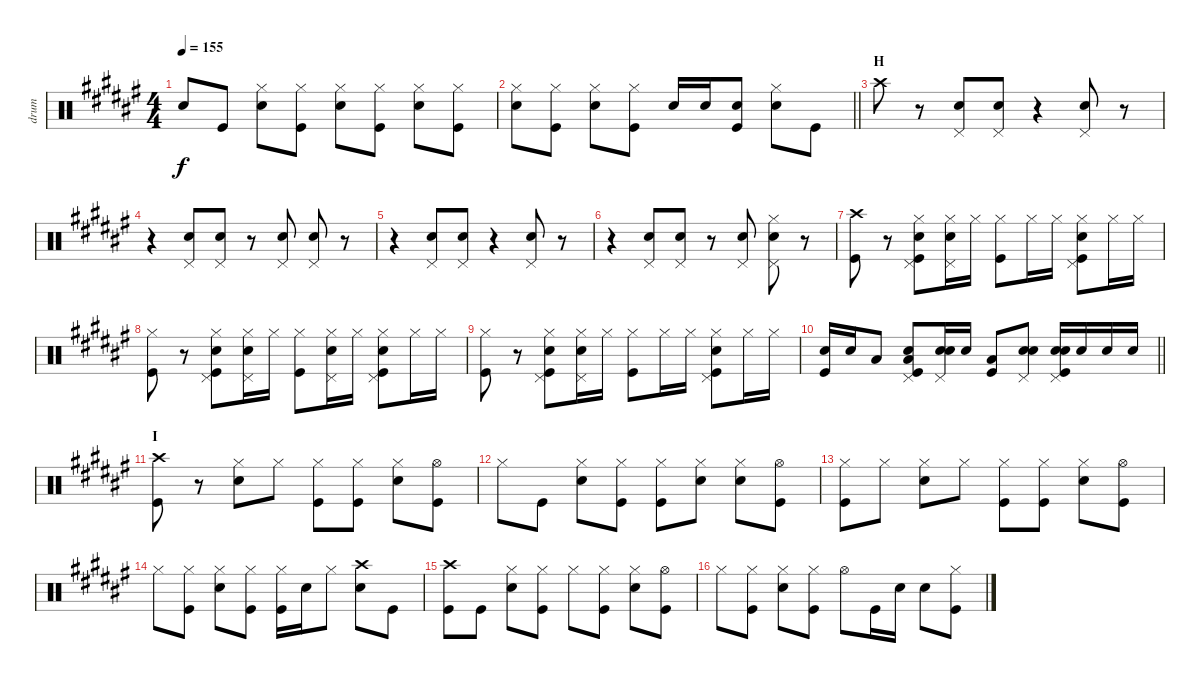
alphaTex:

\track ("drum" "drum") {instrument percussion}
\staff {score}
\articulation defaults
\ts (4 4)
\tempo 155
\clef neutral
\ks f# "Snare (hit) 2".8{dy f} "Kick (hit)".8
("Hi-Hat (closed)" "Snare (hit) 2").8 ("Hi-Hat (closed)" "Kick (hit)").8 ("Hi-Hat (closed)" "Snare (hit) 2").8 ("Hi-Hat (closed)" "Kick (hit)").8 ("Hi-Hat (closed)" "Snare (hit) 2").8 ("Hi-Hat (closed)" "Kick (hit)").8 |
\barLineRight lightlight
("Hi-Hat (closed)" "Snare (hit) 2").8 ("Hi-Hat (closed)" "Kick (hit)").8 ("Hi-Hat (closed)" "Snare (hit) 2").8 ("Hi-Hat (closed)" "Kick (hit)").8 "Snare (hit) 2".16 "Snare (hit) 2".16 ("Snare (hit) 2" "Kick (hit)").8 ("Hi-Hat (closed)" "Snare (hit) 2").8 "Kick (hit)".8 |
\section ("" "H")
"Crash high (hit)".8 r.8 ("Hand Clap (hit)" "Pedal Hi-Hat (hit)").8 ("Hand Clap (hit)" "Pedal Hi-Hat (hit)").8 r.4 ("Hand Clap (hit)" "Pedal Hi-Hat (hit)").8 r.8 |
r.4 ("Hand Clap (hit)" "Pedal Hi-Hat (hit)").8 ("Hand Clap (hit)" "Pedal Hi-Hat (hit)").8 r.8 ("Hand Clap (hit)" "Pedal Hi-Hat (hit)").8 ("Hand Clap (hit)" "Pedal Hi-Hat (hit)").8 r.8 |
r.4 ("Hand Clap (hit)" "Pedal Hi-Hat (hit)").8 ("Hand Clap (hit)" "Pedal Hi-Hat (hit)").8 r.4 ("Hand Clap (hit)" "Pedal Hi-Hat (hit)").8 r.8 |
r.4 ("Hand Clap (hit)" "Pedal Hi-Hat (hit)").8 ("Hand Clap (hit)" "Pedal Hi-Hat (hit)").8 r.8 ("Hand Clap (hit)" "Pedal Hi-Hat (hit)").8 ("Hi-Hat (closed)" "Hand Clap (hit)" "Pedal Hi-Hat (hit)").8 r.8 |
("Crash high (hit)" "Kick (hit)").8 r.8 ("Hi-Hat (closed)" "Hand Clap (hit)" "Pedal Hi-Hat (hit)" "Kick (hit)").8 ("Hi-Hat (closed)" "Hand Clap (hit)" "Pedal Hi-Hat (hit)").16 "Hi-Hat (closed)".16 ("Hi-Hat (closed)" "Kick (hit)").8 "Hi-Hat (closed)".16 "Hi-Hat (closed)".16 ("Hi-Hat (closed)" "Hand Clap (hit)" "Pedal Hi-Hat (hit)" "Kick (hit)").8 "Hi-Hat (closed)".16 "Hi-Hat (closed)".16 |
("Hi-Hat (closed)" "Kick (hit)").8 r.8 ("Hi-Hat (closed)" "Hand Clap (hit)" "Pedal Hi-Hat (hit)" "Kick (hit)").8 ("Hi-Hat (closed)" "Hand Clap (hit)" "Pedal Hi-Hat (hit)").16 "Hi-Hat (closed)".16 ("Hi-Hat (closed)" "Kick (hit)").8 ("Hi-Hat (closed)" "Hand Clap (hit)" "Pedal Hi-Hat (hit)").16 "Hi-Hat (closed)".16 ("Hi-Hat (closed)" "Hand Clap (hit)" "Pedal Hi-Hat (hit)" "Kick (hit)").8 "Hi-Hat (closed)".16 "Hi-Hat (closed)".16 |
("Hi-Hat (closed)" "Kick (hit)").8 r.8 ("Hi-Hat (closed)" "Hand Clap (hit)" "Pedal Hi-Hat (hit)" "Kick (hit)").8 ("Hi-Hat (closed)" "Hand Clap (hit)" "Pedal Hi-Hat (hit)").16 "Hi-Hat (closed)".16 ("Hi-Hat (closed)" "Kick (hit)").8 "Hi-Hat (closed)".16 "Hi-Hat (closed)".16 ("Hi-Hat (closed)" "Hand Clap (hit)" "Pedal Hi-Hat (hit)" "Kick (hit)").8 "Hi-Hat (closed)".16 "Hi-Hat (closed)".16 |
\barLineRight lightlight
("Snare (hit) 2" "Kick (hit)").16 "Snare (hit) 2".16 "Low Tom (hit)".8 ("Hand Clap (hit)" "Low Tom (hit)" "Pedal Hi-Hat (hit)" "Kick (hit)").8 ("Hand Clap (hit)" "Snare (hit) 2" "Pedal Hi-Hat (hit)").16 "Snare (hit) 2".16 ("Low Tom (hit)" "Kick (hit)").8 ("Hand Clap (hit)" "Snare (hit) 2" "Pedal Hi-Hat (hit)").8 ("Hand Clap (hit)" "Snare (hit) 2" "Pedal Hi-Hat (hit)" "Kick (hit)").16 "Snare (hit) 2".16 "Snare (hit) 2".16 "Snare (hit) 2".16 |
\section ("" "I")
("Crash high (hit)" "Kick (hit)").8 r.8 ("Hi-Hat (closed)" "Snare (hit) 2").8 "Hi-Hat (closed)".8 ("Hi-Hat (closed)" "Kick (hit)").8 ("Hi-Hat (closed)" "Kick (hit)").8 ("Hi-Hat (closed)" "Snare (hit) 2").8 ("Hi-Hat (open)" "Kick (hit)").8 |
"Hi-Hat (closed)".8 "Kick (hit)".8 ("Hi-Hat (closed)" "Snare (hit) 2").8 ("Hi-Hat (closed)" "Kick (hit)").8 ("Hi-Hat (closed)" "Kick (hit)").8 ("Hi-Hat (closed)" "Snare (hit) 2").8 ("Hi-Hat (closed)" "Snare (hit) 2").8 ("Hi-Hat (open)" "Kick (hit)").8 |
("Hi-Hat (closed)" "Kick (hit)").8 "Hi-Hat (closed)".8 ("Hi-Hat (closed)" "Snare (hit) 2").8 "Hi-Hat (closed)".8 ("Hi-Hat (closed)" "Kick (hit)").8 ("Hi-Hat (closed)" "Kick (hit)").8 ("Hi-Hat (closed)" "Snare (hit) 2").8 ("Hi-Hat (open)" "Kick (hit)").8 |
"Hi-Hat (closed)".8 ("Hi-Hat (closed)" "Kick (hit)").8 ("Hi-Hat (closed)" "Snare (hit) 2").8 ("Hi-Hat (closed)" "Kick (hit)").8 ("Hi-Hat (closed)" "Kick (hit)").16 "Snare (hit) 2".16 "Hi-Hat (closed)".8 ("Crash high (hit)" "Snare (hit) 2").8 "Kick (hit)".8 |
("Crash high (hit)" "Kick (hit)").8 "Kick (hit)".8 ("Hi-Hat (closed)" "Snare (hit) 2").8 ("Hi-Hat (closed)" "Kick (hit)").8 "Hi-Hat (closed)".8 ("Hi-Hat (closed)" "Kick (hit)").8 ("Hi-Hat (closed)" "Snare (hit) 2").8 ("Hi-Hat (open)" "Kick (hit)").8 |
"Hi-Hat (closed)".8 ("Hi-Hat (closed)" "Kick (hit)").8 ("Hi-Hat (closed)" "Snare (hit) 2").8 ("Hi-Hat (closed)" "Kick (hit)").8 "Hi-Hat (open)".8 "Kick (hit)".16 "Snare (hit) 2".16 "Snare (hit) 2".8 ("Hi-Hat (closed)" "Kick (hit)").8
